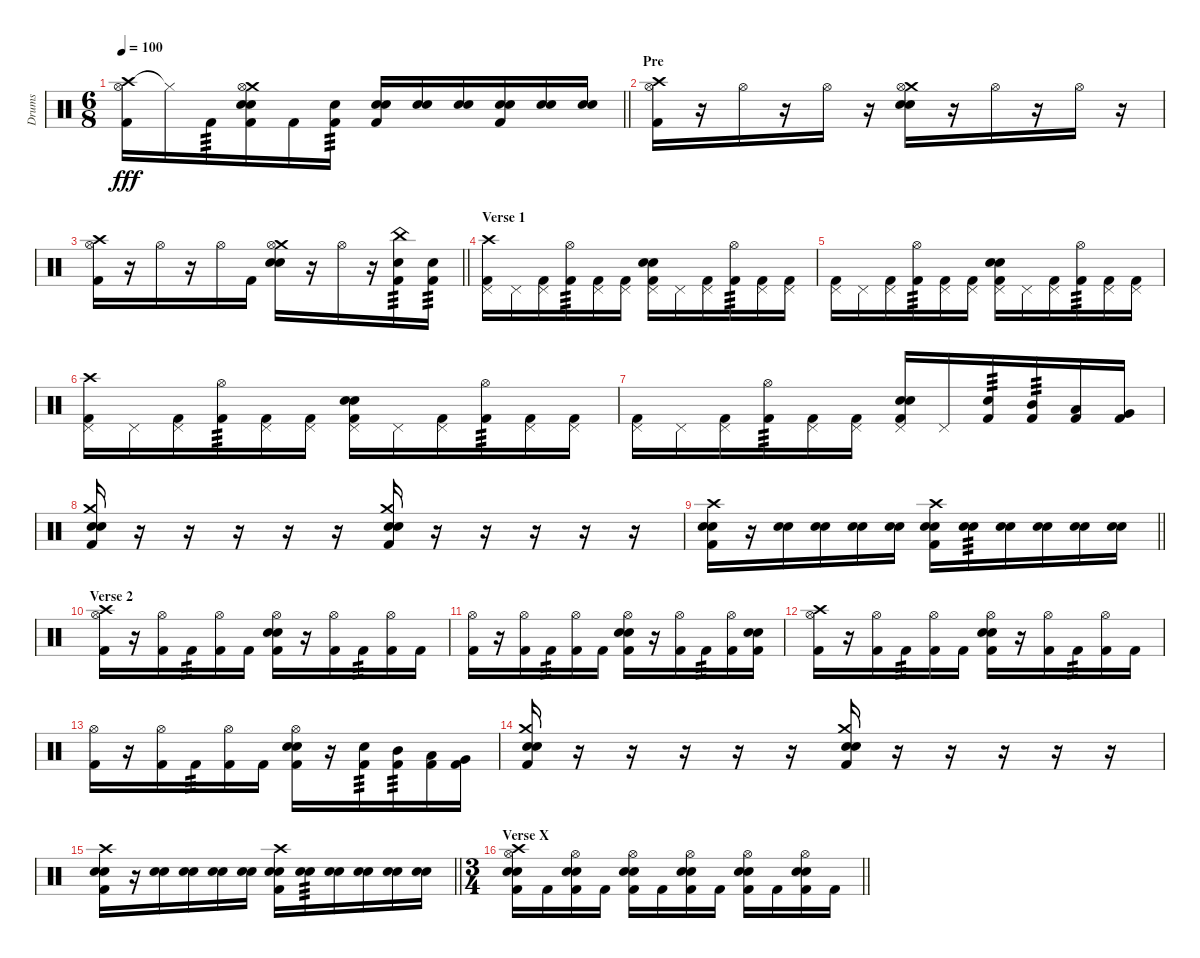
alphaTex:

\track ("Drums" "Drums") {instrument percussion}
\staff {score}
\articulation defaults
\ts (6 8)
\tempo 100
\clef neutral
\barLineRight lightlight
\ks c
("Crash high (hit)" "Hi-Hat (open)" "Kick (hit) 2").16{dy fff} "Hi-Hat (closed)"{t}.16 "Kick (hit) 2".16{tp 3} ("Crash medium (hit)" "Hi-Hat (open)" "Snare (hit) 2" "Electric Snare (hit)" "Kick (hit) 2").16 "Kick (hit) 2".16 ("Electric Snare (hit)" "Kick (hit) 2").16{tp 3} ("Snare (hit) 2" "Electric Snare (hit)" "Kick (hit) 2").16 ("Snare (hit) 2" "Electric Snare (hit)").16 ("Snare (hit) 2" "Electric Snare (hit)").16 ("Snare (hit) 2" "Electric Snare (hit)" "Kick (hit) 2").16 ("Snare (hit) 2" "Electric Snare (hit)").16 ("Snare (hit) 2" "Electric Snare (hit)").16 |
\section ("" "Pre")
("Crash high (hit)" "Hi-Hat (open)" "Kick (hit) 2").16 r.16 "Hi-Hat (open)".16 r.16 "Hi-Hat (open)".16 r.16 ("Crash medium (hit)" "Hi-Hat (open)" "Snare (hit) 2" "Electric Snare (hit)").16 r.16 "Hi-Hat (open)".16 r.16 "Hi-Hat (open)".16 r.16 |
\barLineRight lightlight
("Crash high (hit)" "Hi-Hat (open)" "Kick (hit) 2").16 r.16 "Hi-Hat (open)".16 r.16 "Hi-Hat (open)".16 "Kick (hit) 2".16 ("Crash medium (hit)" "Hi-Hat (open)" "Snare (hit) 2" "Electric Snare (hit)").16 r.16 "Hi-Hat (open)".16 r.16 ("China (hit)" "Electric Snare (hit)" "Kick (hit) 2").16{tp 3} ("Electric Snare (hit)" "Kick (hit) 2").16{tp 3} |
\section ("" "Verse 1")
("Crash high (hit)" "Pedal Hi-Hat (hit)" "Kick (hit) 2").16 "Pedal Hi-Hat (hit)".16 ("Pedal Hi-Hat (hit)" "Kick (hit) 2").16 ("Hi-Hat (open)" "Kick (hit) 2").16{tp 3} ("Pedal Hi-Hat (hit)" "Kick (hit) 2").16 ("Pedal Hi-Hat (hit)" "Kick (hit) 2").16 ("Pedal Hi-Hat (hit)" "Snare (hit) 2" "Electric Snare (hit)" "Kick (hit) 2").16 "Pedal Hi-Hat (hit)".16 ("Pedal Hi-Hat (hit)" "Kick (hit) 2").16 ("Hi-Hat (open)" "Kick (hit) 2").16{tp 3} ("Pedal Hi-Hat (hit)" "Kick (hit) 2").16 ("Pedal Hi-Hat (hit)" "Kick (hit) 2").16 |
("Pedal Hi-Hat (hit)" "Kick (hit) 2").16 "Pedal Hi-Hat (hit)".16 ("Pedal Hi-Hat (hit)" "Kick (hit) 2").16 ("Hi-Hat (open)" "Kick (hit) 2").16{tp 3} ("Pedal Hi-Hat (hit)" "Kick (hit) 2").16 ("Pedal Hi-Hat (hit)" "Kick (hit) 2").16 ("Pedal Hi-Hat (hit)" "Snare (hit) 2" "Electric Snare (hit)" "Kick (hit) 2").16 "Pedal Hi-Hat (hit)".16 ("Pedal Hi-Hat (hit)" "Kick (hit) 2").16 ("Hi-Hat (open)" "Kick (hit) 2").16{tp 3} ("Pedal Hi-Hat (hit)" "Kick (hit) 2").16 ("Pedal Hi-Hat (hit)" "Kick (hit) 2").16 |
("Crash high (hit)" "Pedal Hi-Hat (hit)" "Kick (hit) 2").16 "Pedal Hi-Hat (hit)".16 ("Pedal Hi-Hat (hit)" "Kick (hit) 2").16 ("Hi-Hat (open)" "Kick (hit) 2").16{tp 3} ("Pedal Hi-Hat (hit)" "Kick (hit) 2").16 ("Pedal Hi-Hat (hit)" "Kick (hit) 2").16 ("Pedal Hi-Hat (hit)" "Snare (hit) 2" "Electric Snare (hit)" "Kick (hit) 2").16 "Pedal Hi-Hat (hit)".16 ("Pedal Hi-Hat (hit)" "Kick (hit) 2").16 ("Hi-Hat (open)" "Kick (hit) 2").16{tp 3} ("Pedal Hi-Hat (hit)" "Kick (hit) 2").16 ("Pedal Hi-Hat (hit)" "Kick (hit) 2").16 |
("Pedal Hi-Hat (hit)" "Kick (hit) 2").16 "Pedal Hi-Hat (hit)".16 ("Pedal Hi-Hat (hit)" "Kick (hit) 2").16 ("Hi-Hat (open)" "Kick (hit) 2").16{tp 3} ("Pedal Hi-Hat (hit)" "Kick (hit) 2").16 ("Pedal Hi-Hat (hit)" "Kick (hit) 2").16 ("Pedal Hi-Hat (hit)" "Snare (hit) 2" "Electric Snare (hit)" "Kick (hit) 2").16 "Pedal Hi-Hat (hit)".16 ("Electric Snare (hit)" "Kick (hit) 2").16{tp 3} ("Mid Tom (hit)" "Kick (hit) 2").16{tp 3} ("Low Tom (hit)" "Kick (hit) 2").16 ("Very Low Tom (hit)" "Kick (hit) 2").16 |
("Crash medium (hit)" "Snare (hit) 2" "Electric Snare (hit)" "Kick (hit) 2").16 r.16 r.16 r.16 r.16 r.16 ("Crash medium (hit)" "Snare (hit) 2" "Electric Snare (hit)" "Kick (hit) 2").16 r.16 r.16 r.16 r.16 r.16 |
\barLineRight lightlight
("Crash high (hit)" "Snare (hit) 2" "Electric Snare (hit)" "Kick (hit) 2").16 r.16 ("Snare (hit) 2" "Electric Snare (hit)").16 ("Snare (hit) 2" "Electric Snare (hit)").16 ("Snare (hit) 2" "Electric Snare (hit)").16 ("Snare (hit) 2" "Electric Snare (hit)").16 ("Crash high (hit)" "Snare (hit) 2" "Electric Snare (hit)" "Kick (hit) 2").16 ("Snare (hit) 2" "Electric Snare (hit)").16{tp 3} ("Snare (hit) 2" "Electric Snare (hit)").16 ("Snare (hit) 2" "Electric Snare (hit)").16 ("Snare (hit) 2" "Electric Snare (hit)").16 ("Snare (hit) 2" "Electric Snare (hit)").16 |
\section ("" "Verse 2")
("Crash high (hit)" "Hi-Hat (open)" "Kick (hit) 2").16 r.16 ("Hi-Hat (open)" "Kick (hit) 2").16 "Kick (hit) 2".16{tp 3} ("Hi-Hat (open)" "Kick (hit) 2").16 "Kick (hit) 2".16 ("Hi-Hat (open)" "Snare (hit) 2" "Electric Snare (hit)" "Kick (hit) 2").16 r.16 ("Hi-Hat (open)" "Kick (hit) 2").16 "Kick (hit) 2".16{tp 3} ("Hi-Hat (open)" "Kick (hit) 2").16 "Kick (hit) 2".16 |
("Hi-Hat (open)" "Kick (hit) 2").16 r.16 ("Hi-Hat (open)" "Kick (hit) 2").16 "Kick (hit) 2".16{tp 3} ("Hi-Hat (open)" "Kick (hit) 2").16 "Kick (hit) 2".16 ("Hi-Hat (open)" "Snare (hit) 2" "Electric Snare (hit)" "Kick (hit) 2").16 r.16 ("Hi-Hat (open)" "Kick (hit) 2").16 "Kick (hit) 2".16{tp 3} ("Hi-Hat (open)" "Kick (hit) 2").16 ("Snare (hit) 2" "Electric Snare (hit)" "Kick (hit) 2").16 |
("Crash high (hit)" "Hi-Hat (open)" "Kick (hit) 2").16 r.16 ("Hi-Hat (open)" "Kick (hit) 2").16 "Kick (hit) 2".16{tp 3} ("Hi-Hat (open)" "Kick (hit) 2").16 "Kick (hit) 2".16 ("Hi-Hat (open)" "Snare (hit) 2" "Electric Snare (hit)" "Kick (hit) 2").16 r.16 ("Hi-Hat (open)" "Kick (hit) 2").16 "Kick (hit) 2".16{tp 3} ("Hi-Hat (open)" "Kick (hit) 2").16 "Kick (hit) 2".16 |
("Hi-Hat (open)" "Kick (hit) 2").16 r.16 ("Hi-Hat (open)" "Kick (hit) 2").16 "Kick (hit) 2".16{tp 3} ("Hi-Hat (open)" "Kick (hit) 2").16 "Kick (hit) 2".16 ("Hi-Hat (open)" "Snare (hit) 2" "Electric Snare (hit)" "Kick (hit) 2").16 r.16 ("Electric Snare (hit)" "Kick (hit) 2").16{tp 3} ("Mid Tom (hit)" "Kick (hit) 2").16{tp 3} ("Low Tom (hit)" "Kick (hit) 2").16 ("Very Low Tom (hit)" "Kick (hit) 2").16 |
("Crash medium (hit)" "Snare (hit) 2" "Electric Snare (hit)" "Kick (hit) 2").16 r.16 r.16 r.16 r.16 r.16 ("Crash medium (hit)" "Snare (hit) 2" "Electric Snare (hit)" "Kick (hit) 2").16 r.16 r.16 r.16 r.16 r.16 |
\barLineRight lightlight
("Crash high (hit)" "Snare (hit) 2" "Electric Snare (hit)" "Kick (hit) 2").16 r.16 ("Snare (hit) 2" "Electric Snare (hit)").16 ("Snare (hit) 2" "Electric Snare (hit)").16 ("Snare (hit) 2" "Electric Snare (hit)").16 ("Snare (hit) 2" "Electric Snare (hit)").16 ("Crash high (hit)" "Snare (hit) 2" "Electric Snare (hit)" "Kick (hit) 2").16 ("Snare (hit) 2" "Electric Snare (hit)").16{tp 3} ("Snare (hit) 2" "Electric Snare (hit)").16 ("Snare (hit) 2" "Electric Snare (hit)").16 ("Snare (hit) 2" "Electric Snare (hit)").16 ("Snare (hit) 2" "Electric Snare (hit)").16 |
\ts (3 4)
\section ("" "Verse X")
\barLineRight lightlight
("Crash high (hit)" "Hi-Hat (open)" "Snare (hit) 2" "Electric Snare (hit)" "Kick (hit) 2").16 "Kick (hit) 2".16 ("Hi-Hat (open)" "Snare (hit) 2" "Electric Snare (hit)" "Kick (hit) 2").16 "Kick (hit) 2".16 ("Hi-Hat (open)" "Snare (hit) 2" "Electric Snare (hit)" "Kick (hit) 2").16 "Kick (hit) 2".16 ("Hi-Hat (open)" "Snare (hit) 2" "Electric Snare (hit)" "Kick (hit) 2").16 "Kick (hit) 2".16 ("Hi-Hat (open)" "Snare (hit) 2" "Electric Snare (hit)" "Kick (hit) 2").16 "Kick (hit) 2".16 ("Hi-Hat (open)" "Snare (hit) 2" "Electric Snare (hit)" "Kick (hit) 2").16 "Kick (hit) 2".16
